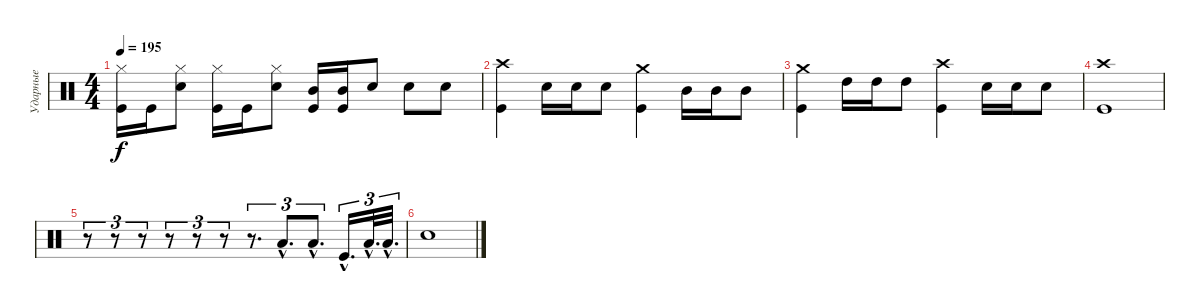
\track ("Ударные" "Ударные") {instrument percussion}
\staff {score}
\articulation defaults
\ts (4 4)
\tempo 195
\clef neutral
\ks c
("Hi-Hat (closed)" "Kick (hit)").16{dy f} "Kick (hit)".16 ("Hi-Hat (closed)" "Electric Snare (hit)").8 ("Hi-Hat (closed)" "Kick (hit)").16 "Kick (hit)".16 ("Hi-Hat (closed)" "Electric Snare (hit)").8 ("Mid Tom (hit)" "Kick (hit)").16 ("Mid Tom (hit)" "Kick (hit)").16 "Electric Snare (hit)".8 "Electric Snare (hit)".8 "Electric Snare (hit)".8 |
("Crash high (hit)" "Kick (hit)").4 "Electric Snare (hit)".16 "Electric Snare (hit)".16 "Electric Snare (hit)".8 ("Crash medium (hit)" "Kick (hit)").4 "Mid Tom (hit)".16 "Mid Tom (hit)".16 "Mid Tom (hit)".8 |
("Crash medium (hit)" "Kick (hit)").4 "High Tom (hit)".16 "High Tom (hit)".16 "High Tom (hit)".8 ("Crash high (hit)" "Kick (hit)").4 "Electric Snare (hit)".16 "Electric Snare (hit)".16 "Electric Snare (hit)".8 |
("Crash high (hit)" "Kick (hit)").1 |
r.8{tu (3 2)} r.8{tu (3 2)} r.8{tu (3 2)} r.8{tu (3 2)} r.8{tu (3 2)} r.8{tu (3 2)} r.8{d tu (3 2)} "Low Tom (hit)"{hac}.8{d tu (3 2)} "Low Tom (hit)"{hac}.8{d tu (3 2)} "Kick (hit)"{hac}.16{d tu (3 2)} "Low Tom (hit)"{hac}.32{d tu (3 2)} "Low Tom (hit)"{hac}.32{d tu (3 2)} |
"Electric Snare (hit)".1
